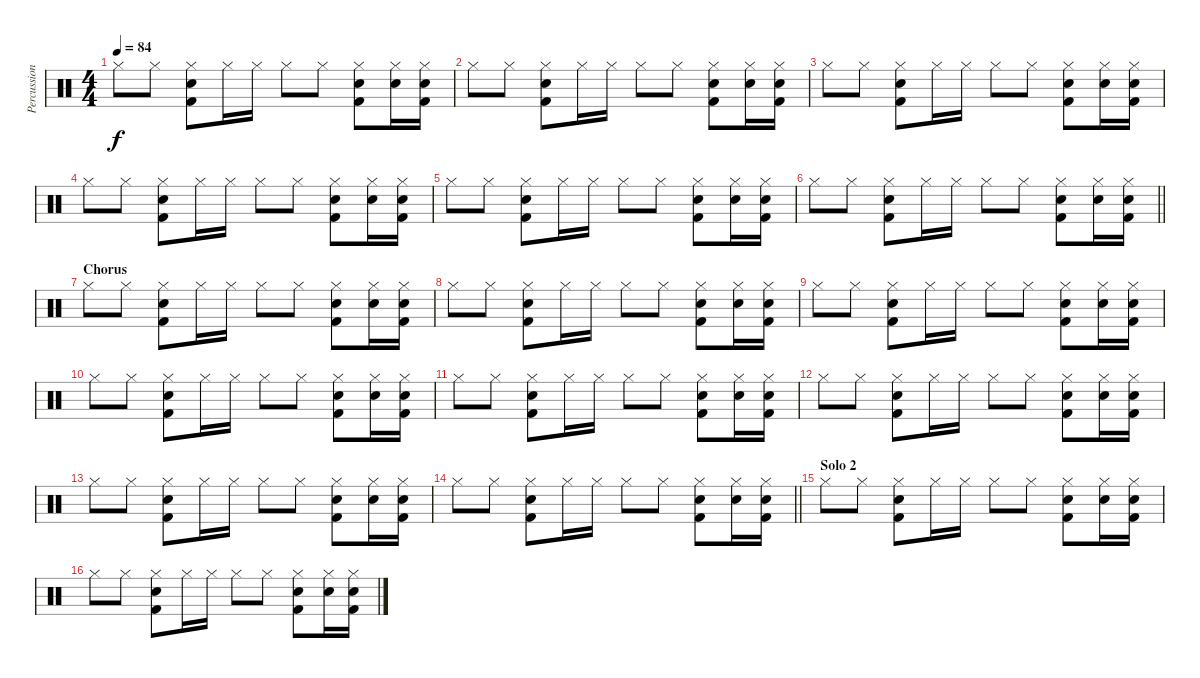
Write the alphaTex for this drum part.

\track ("Percussion" "Percussion") {instrument percussion}
\staff {score}
\articulation defaults
\ts (4 4)
\tempo 84
\clef neutral
\ks c "Hi-Hat (closed)".8{dy f} "Hi-Hat (closed)".8
("Hi-Hat (closed)" "Snare (hit) 2" "Kick (hit) 2").8 "Hi-Hat (closed)".16 "Hi-Hat (closed)".16 "Hi-Hat (closed)".8 "Hi-Hat (closed)".8 ("Hi-Hat (closed)" "Snare (hit) 2" "Kick (hit) 2").8 ("Hi-Hat (closed)" "Snare (hit) 2").16 ("Hi-Hat (closed)" "Snare (hit) 2" "Kick (hit) 2").16 |
"Hi-Hat (closed)".8 "Hi-Hat (closed)".8 ("Hi-Hat (closed)" "Snare (hit) 2" "Kick (hit) 2").8 "Hi-Hat (closed)".16 "Hi-Hat (closed)".16 "Hi-Hat (closed)".8 "Hi-Hat (closed)".8 ("Hi-Hat (closed)" "Snare (hit) 2" "Kick (hit) 2").8 ("Hi-Hat (closed)" "Snare (hit) 2").16 ("Hi-Hat (closed)" "Snare (hit) 2" "Kick (hit) 2").16 |
"Hi-Hat (closed)".8 "Hi-Hat (closed)".8 ("Hi-Hat (closed)" "Snare (hit) 2" "Kick (hit) 2").8 "Hi-Hat (closed)".16 "Hi-Hat (closed)".16 "Hi-Hat (closed)".8 "Hi-Hat (closed)".8 ("Hi-Hat (closed)" "Snare (hit) 2" "Kick (hit) 2").8 ("Hi-Hat (closed)" "Snare (hit) 2").16 ("Hi-Hat (closed)" "Snare (hit) 2" "Kick (hit) 2").16 |
"Hi-Hat (closed)".8 "Hi-Hat (closed)".8 ("Hi-Hat (closed)" "Snare (hit) 2" "Kick (hit) 2").8 "Hi-Hat (closed)".16 "Hi-Hat (closed)".16 "Hi-Hat (closed)".8 "Hi-Hat (closed)".8 ("Hi-Hat (closed)" "Snare (hit) 2" "Kick (hit) 2").8 ("Hi-Hat (closed)" "Snare (hit) 2").16 ("Hi-Hat (closed)" "Snare (hit) 2" "Kick (hit) 2").16 |
"Hi-Hat (closed)".8 "Hi-Hat (closed)".8 ("Hi-Hat (closed)" "Snare (hit) 2" "Kick (hit) 2").8 "Hi-Hat (closed)".16 "Hi-Hat (closed)".16 "Hi-Hat (closed)".8 "Hi-Hat (closed)".8 ("Hi-Hat (closed)" "Snare (hit) 2" "Kick (hit) 2").8 ("Hi-Hat (closed)" "Snare (hit) 2").16 ("Hi-Hat (closed)" "Snare (hit) 2" "Kick (hit) 2").16 |
\barLineRight lightlight "Hi-Hat (closed)".8 "Hi-Hat (closed)".8
("Hi-Hat (closed)" "Snare (hit) 2" "Kick (hit) 2").8 "Hi-Hat (closed)".16 "Hi-Hat (closed)".16 "Hi-Hat (closed)".8 "Hi-Hat (closed)".8 ("Hi-Hat (closed)" "Snare (hit) 2" "Kick (hit) 2").8 ("Hi-Hat (closed)" "Snare (hit) 2").16 ("Hi-Hat (closed)" "Snare (hit) 2" "Kick (hit) 2").16 |
\section ("" "Chorus")
"Hi-Hat (closed)".8 "Hi-Hat (closed)".8 ("Hi-Hat (closed)" "Snare (hit) 2" "Kick (hit) 2").8 "Hi-Hat (closed)".16 "Hi-Hat (closed)".16 "Hi-Hat (closed)".8 "Hi-Hat (closed)".8 ("Hi-Hat (closed)" "Snare (hit) 2" "Kick (hit) 2").8 ("Hi-Hat (closed)" "Snare (hit) 2").16 ("Hi-Hat (closed)" "Snare (hit) 2" "Kick (hit) 2").16 |
"Hi-Hat (closed)".8 "Hi-Hat (closed)".8 ("Hi-Hat (closed)" "Snare (hit) 2" "Kick (hit) 2").8 "Hi-Hat (closed)".16 "Hi-Hat (closed)".16 "Hi-Hat (closed)".8 "Hi-Hat (closed)".8 ("Hi-Hat (closed)" "Snare (hit) 2" "Kick (hit) 2").8 ("Hi-Hat (closed)" "Snare (hit) 2").16 ("Hi-Hat (closed)" "Snare (hit) 2" "Kick (hit) 2").16 |
"Hi-Hat (closed)".8 "Hi-Hat (closed)".8 ("Hi-Hat (closed)" "Snare (hit) 2" "Kick (hit) 2").8 "Hi-Hat (closed)".16 "Hi-Hat (closed)".16 "Hi-Hat (closed)".8 "Hi-Hat (closed)".8 ("Hi-Hat (closed)" "Snare (hit) 2" "Kick (hit) 2").8 ("Hi-Hat (closed)" "Snare (hit) 2").16 ("Hi-Hat (closed)" "Snare (hit) 2" "Kick (hit) 2").16 |
"Hi-Hat (closed)".8 "Hi-Hat (closed)".8 ("Hi-Hat (closed)" "Snare (hit) 2" "Kick (hit) 2").8 "Hi-Hat (closed)".16 "Hi-Hat (closed)".16 "Hi-Hat (closed)".8 "Hi-Hat (closed)".8 ("Hi-Hat (closed)" "Snare (hit) 2" "Kick (hit) 2").8 ("Hi-Hat (closed)" "Snare (hit) 2").16 ("Hi-Hat (closed)" "Snare (hit) 2" "Kick (hit) 2").16 |
"Hi-Hat (closed)".8 "Hi-Hat (closed)".8 ("Hi-Hat (closed)" "Snare (hit) 2" "Kick (hit) 2").8 "Hi-Hat (closed)".16 "Hi-Hat (closed)".16 "Hi-Hat (closed)".8 "Hi-Hat (closed)".8 ("Hi-Hat (closed)" "Snare (hit) 2" "Kick (hit) 2").8 ("Hi-Hat (closed)" "Snare (hit) 2").16 ("Hi-Hat (closed)" "Snare (hit) 2" "Kick (hit) 2").16 |
"Hi-Hat (closed)".8 "Hi-Hat (closed)".8 ("Hi-Hat (closed)" "Snare (hit) 2" "Kick (hit) 2").8 "Hi-Hat (closed)".16 "Hi-Hat (closed)".16 "Hi-Hat (closed)".8 "Hi-Hat (closed)".8 ("Hi-Hat (closed)" "Snare (hit) 2" "Kick (hit) 2").8 ("Hi-Hat (closed)" "Snare (hit) 2").16 ("Hi-Hat (closed)" "Snare (hit) 2" "Kick (hit) 2").16 |
"Hi-Hat (closed)".8 "Hi-Hat (closed)".8 ("Hi-Hat (closed)" "Snare (hit) 2" "Kick (hit) 2").8 "Hi-Hat (closed)".16 "Hi-Hat (closed)".16 "Hi-Hat (closed)".8 "Hi-Hat (closed)".8 ("Hi-Hat (closed)" "Snare (hit) 2" "Kick (hit) 2").8 ("Hi-Hat (closed)" "Snare (hit) 2").16 ("Hi-Hat (closed)" "Snare (hit) 2" "Kick (hit) 2").16 |
\barLineRight lightlight "Hi-Hat (closed)".8 "Hi-Hat (closed)".8
("Hi-Hat (closed)" "Snare (hit) 2" "Kick (hit) 2").8 "Hi-Hat (closed)".16 "Hi-Hat (closed)".16 "Hi-Hat (closed)".8 "Hi-Hat (closed)".8 ("Hi-Hat (closed)" "Snare (hit) 2" "Kick (hit) 2").8 ("Hi-Hat (closed)" "Snare (hit) 2").16 ("Hi-Hat (closed)" "Snare (hit) 2" "Kick (hit) 2").16 |
\section ("" "Solo 2")
"Hi-Hat (closed)".8 "Hi-Hat (closed)".8 ("Hi-Hat (closed)" "Snare (hit) 2" "Kick (hit) 2").8 "Hi-Hat (closed)".16 "Hi-Hat (closed)".16 "Hi-Hat (closed)".8 "Hi-Hat (closed)".8 ("Hi-Hat (closed)" "Snare (hit) 2" "Kick (hit) 2").8 ("Hi-Hat (closed)" "Snare (hit) 2").16 ("Hi-Hat (closed)" "Snare (hit) 2" "Kick (hit) 2").16 |
"Hi-Hat (closed)".8 "Hi-Hat (closed)".8 ("Hi-Hat (closed)" "Snare (hit) 2" "Kick (hit) 2").8 "Hi-Hat (closed)".16 "Hi-Hat (closed)".16 "Hi-Hat (closed)".8 "Hi-Hat (closed)".8 ("Hi-Hat (closed)" "Snare (hit) 2" "Kick (hit) 2").8 ("Hi-Hat (closed)" "Snare (hit) 2").16 ("Hi-Hat (closed)" "Snare (hit) 2" "Kick (hit) 2").16
